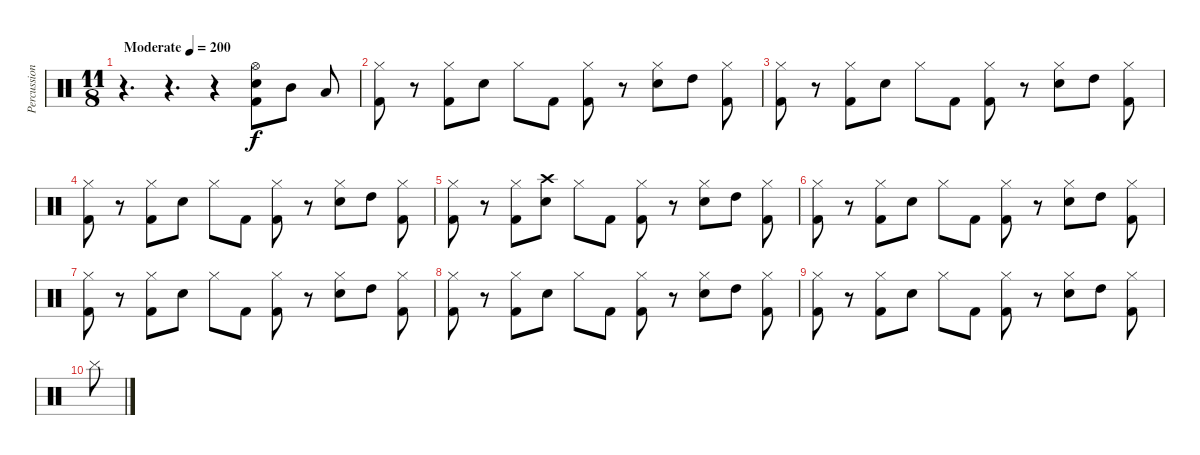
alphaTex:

\track ("Percussion" "Percussion") {instrument percussion}
\staff {score}
\articulation defaults
\ts (11 8)
\tempo (200 "Moderate")
\clef neutral
\ks c
r.4{d dy f} r.4{d} r.4 ("Hi-Hat (open)" "Electric Snare (hit)" "Kick (hit) 2").8 "Mid Tom (hit)".8 "Low Tom (hit)".8 |
("Hi-Hat (closed)" "Kick (hit) 2").8 r.8 ("Hi-Hat (closed)" "Kick (hit) 2").8 "Electric Snare (hit)".8 "Hi-Hat (closed)".8 "Kick (hit) 2".8 ("Hi-Hat (closed)" "Kick (hit) 2").8 r.8 ("Hi-Hat (closed)" "Electric Snare (hit)").8 "High Tom (hit)".8 ("Hi-Hat (closed)" "Kick (hit) 2").8 |
("Hi-Hat (closed)" "Kick (hit) 2").8 r.8 ("Hi-Hat (closed)" "Kick (hit) 2").8 "Electric Snare (hit)".8 "Hi-Hat (closed)".8 "Kick (hit) 2".8 ("Hi-Hat (closed)" "Kick (hit) 2").8 r.8 ("Hi-Hat (closed)" "Electric Snare (hit)").8 "High Tom (hit)".8 ("Hi-Hat (closed)" "Kick (hit) 2").8 |
("Hi-Hat (closed)" "Kick (hit) 2").8 r.8 ("Hi-Hat (closed)" "Kick (hit) 2").8 "Electric Snare (hit)".8 "Hi-Hat (closed)".8 "Kick (hit) 2".8 ("Hi-Hat (closed)" "Kick (hit) 2").8 r.8 ("Hi-Hat (closed)" "Electric Snare (hit)").8 "High Tom (hit)".8 ("Hi-Hat (closed)" "Kick (hit) 2").8 |
("Hi-Hat (closed)" "Kick (hit) 2").8 r.8 ("Hi-Hat (closed)" "Kick (hit) 2").8 ("Crash high (hit)" "Electric Snare (hit)").8 "Hi-Hat (closed)".8 "Kick (hit) 2".8 ("Hi-Hat (closed)" "Kick (hit) 2").8 r.8 ("Hi-Hat (closed)" "Electric Snare (hit)").8 "High Tom (hit)".8 ("Hi-Hat (closed)" "Kick (hit) 2").8 |
("Hi-Hat (closed)" "Kick (hit) 2").8 r.8 ("Hi-Hat (closed)" "Kick (hit) 2").8 "Electric Snare (hit)".8 "Hi-Hat (closed)".8 "Kick (hit) 2".8 ("Hi-Hat (closed)" "Kick (hit) 2").8 r.8 ("Hi-Hat (closed)" "Electric Snare (hit)").8 "High Tom (hit)".8 ("Hi-Hat (closed)" "Kick (hit) 2").8 |
("Hi-Hat (closed)" "Kick (hit) 2").8 r.8 ("Hi-Hat (closed)" "Kick (hit) 2").8 "Electric Snare (hit)".8 "Hi-Hat (closed)".8 "Kick (hit) 2".8 ("Hi-Hat (closed)" "Kick (hit) 2").8 r.8 ("Hi-Hat (closed)" "Electric Snare (hit)").8 "High Tom (hit)".8 ("Hi-Hat (closed)" "Kick (hit) 2").8 |
("Hi-Hat (closed)" "Kick (hit) 2").8 r.8 ("Hi-Hat (closed)" "Kick (hit) 2").8 "Electric Snare (hit)".8 "Hi-Hat (closed)".8 "Kick (hit) 2".8 ("Hi-Hat (closed)" "Kick (hit) 2").8 r.8 ("Hi-Hat (closed)" "Electric Snare (hit)").8 "High Tom (hit)".8 ("Hi-Hat (closed)" "Kick (hit) 2").8 |
("Hi-Hat (closed)" "Kick (hit) 2").8 r.8 ("Hi-Hat (closed)" "Kick (hit) 2").8 "Electric Snare (hit)".8 "Hi-Hat (closed)".8 "Kick (hit) 2".8 ("Hi-Hat (closed)" "Kick (hit) 2").8 r.8 ("Hi-Hat (closed)" "Electric Snare (hit)").8 "High Tom (hit)".8 ("Hi-Hat (closed)" "Kick (hit) 2").8 |
"Cymbal (hit)".8
